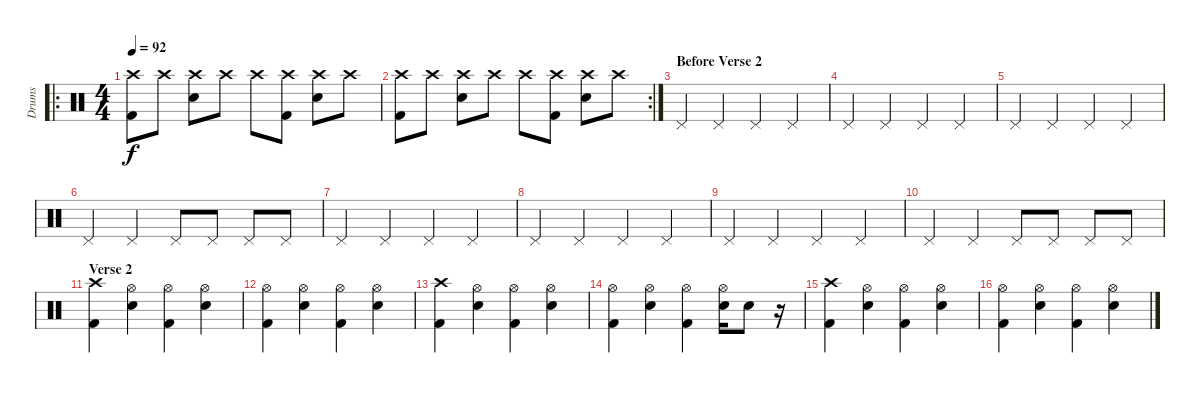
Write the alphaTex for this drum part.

\track ("Drums" "Drums") {instrument percussion}
\staff {score}
\articulation defaults
\ro
\ts (4 4)
\tempo 92
\clef neutral
\ks c
("Crash high (hit)" "Kick (hit) 2").8{dy f} "Crash high (hit)".8 ("Crash high (hit)" "Electric Snare (hit)").8 "Crash high (hit)".8 "Crash high (hit)".8 ("Crash high (hit)" "Kick (hit) 2").8 ("Crash high (hit)" "Electric Snare (hit)").8 "Crash high (hit)".8 |
\rc 2
("Crash high (hit)" "Kick (hit) 2").8 "Crash high (hit)".8 ("Crash high (hit)" "Electric Snare (hit)").8 "Crash high (hit)".8 "Crash high (hit)".8 ("Crash high (hit)" "Kick (hit) 2").8 ("Crash high (hit)" "Electric Snare (hit)").8 "Crash high (hit)".8 |
\section ("" "Before Verse 2")
"Pedal Hi-Hat (hit)".4 "Pedal Hi-Hat (hit)".4 "Pedal Hi-Hat (hit)".4 "Pedal Hi-Hat (hit)".4 |
"Pedal Hi-Hat (hit)".4 "Pedal Hi-Hat (hit)".4 "Pedal Hi-Hat (hit)".4 "Pedal Hi-Hat (hit)".4 |
"Pedal Hi-Hat (hit)".4 "Pedal Hi-Hat (hit)".4 "Pedal Hi-Hat (hit)".4 "Pedal Hi-Hat (hit)".4 |
"Pedal Hi-Hat (hit)".4 "Pedal Hi-Hat (hit)".4 "Pedal Hi-Hat (hit)".8 "Pedal Hi-Hat (hit)".8 "Pedal Hi-Hat (hit)".8 "Pedal Hi-Hat (hit)".8 |
"Pedal Hi-Hat (hit)".4 "Pedal Hi-Hat (hit)".4 "Pedal Hi-Hat (hit)".4 "Pedal Hi-Hat (hit)".4 |
"Pedal Hi-Hat (hit)".4 "Pedal Hi-Hat (hit)".4 "Pedal Hi-Hat (hit)".4 "Pedal Hi-Hat (hit)".4 |
"Pedal Hi-Hat (hit)".4 "Pedal Hi-Hat (hit)".4 "Pedal Hi-Hat (hit)".4 "Pedal Hi-Hat (hit)".4 |
"Pedal Hi-Hat (hit)".4 "Pedal Hi-Hat (hit)".4 "Pedal Hi-Hat (hit)".8 "Pedal Hi-Hat (hit)".8 "Pedal Hi-Hat (hit)".8 "Pedal Hi-Hat (hit)".8 |
\section ("" "Verse 2")
("Crash high (hit)" "Kick (hit) 2").4 ("Hi-Hat (open)" "Electric Snare (hit)").4 ("Hi-Hat (open)" "Kick (hit) 2").4 ("Hi-Hat (open)" "Electric Snare (hit)").4 |
("Hi-Hat (open)" "Kick (hit) 2").4 ("Hi-Hat (open)" "Electric Snare (hit)").4 ("Hi-Hat (open)" "Kick (hit) 2").4 ("Hi-Hat (open)" "Electric Snare (hit)").4 |
("Crash high (hit)" "Kick (hit) 2").4 ("Hi-Hat (open)" "Electric Snare (hit)").4 ("Hi-Hat (open)" "Kick (hit) 2").4 ("Hi-Hat (open)" "Electric Snare (hit)").4 |
("Hi-Hat (open)" "Kick (hit) 2").4 ("Hi-Hat (open)" "Electric Snare (hit)").4 ("Hi-Hat (open)" "Kick (hit) 2").4 ("Hi-Hat (open)" "Electric Snare (hit)").16 "Electric Snare (hit)".8 r.16 |
("Crash high (hit)" "Kick (hit) 2").4 ("Hi-Hat (open)" "Electric Snare (hit)").4 ("Hi-Hat (open)" "Kick (hit) 2").4 ("Hi-Hat (open)" "Electric Snare (hit)").4 |
("Hi-Hat (open)" "Kick (hit) 2").4 ("Hi-Hat (open)" "Electric Snare (hit)").4 ("Hi-Hat (open)" "Kick (hit) 2").4 ("Hi-Hat (open)" "Electric Snare (hit)").4
